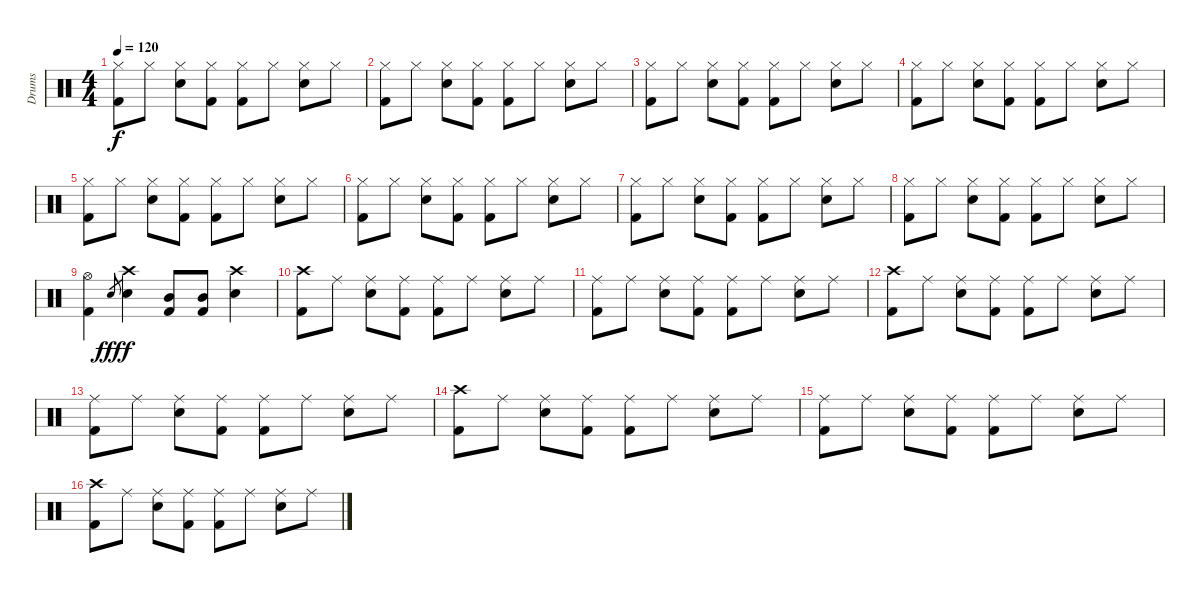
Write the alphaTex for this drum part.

\track ("Drums" "Drums") {instrument percussion}
\staff {score}
\articulation defaults
\ts (4 4)
\tempo 120
\clef neutral
\ks c
("Hi-Hat (closed)" "Kick (hit) 2").8{dy f} "Hi-Hat (closed)".8 ("Hi-Hat (closed)" "Snare (hit) 2").8 ("Hi-Hat (closed)" "Kick (hit) 2").8 ("Hi-Hat (closed)" "Kick (hit) 2").8 "Hi-Hat (closed)".8 ("Hi-Hat (closed)" "Snare (hit) 2").8 "Hi-Hat (closed)".8 |
("Hi-Hat (closed)" "Kick (hit) 2").8 "Hi-Hat (closed)".8 ("Hi-Hat (closed)" "Snare (hit) 2").8 ("Hi-Hat (closed)" "Kick (hit) 2").8 ("Hi-Hat (closed)" "Kick (hit) 2").8 "Hi-Hat (closed)".8 ("Hi-Hat (closed)" "Snare (hit) 2").8 "Hi-Hat (closed)".8 |
("Hi-Hat (closed)" "Kick (hit) 2").8 "Hi-Hat (closed)".8 ("Hi-Hat (closed)" "Snare (hit) 2").8 ("Hi-Hat (closed)" "Kick (hit) 2").8 ("Hi-Hat (closed)" "Kick (hit) 2").8 "Hi-Hat (closed)".8 ("Hi-Hat (closed)" "Snare (hit) 2").8 "Hi-Hat (closed)".8 |
("Hi-Hat (closed)" "Kick (hit) 2").8 "Hi-Hat (closed)".8 ("Hi-Hat (closed)" "Snare (hit) 2").8 ("Hi-Hat (closed)" "Kick (hit) 2").8 ("Hi-Hat (closed)" "Kick (hit) 2").8 "Hi-Hat (closed)".8 ("Hi-Hat (closed)" "Snare (hit) 2").8 "Hi-Hat (closed)".8 |
("Hi-Hat (closed)" "Kick (hit) 2").8 "Hi-Hat (closed)".8 ("Hi-Hat (closed)" "Snare (hit) 2").8 ("Hi-Hat (closed)" "Kick (hit) 2").8 ("Hi-Hat (closed)" "Kick (hit) 2").8 "Hi-Hat (closed)".8 ("Hi-Hat (closed)" "Snare (hit) 2").8 "Hi-Hat (closed)".8 |
("Hi-Hat (closed)" "Kick (hit) 2").8 "Hi-Hat (closed)".8 ("Hi-Hat (closed)" "Snare (hit) 2").8 ("Hi-Hat (closed)" "Kick (hit) 2").8 ("Hi-Hat (closed)" "Kick (hit) 2").8 "Hi-Hat (closed)".8 ("Hi-Hat (closed)" "Snare (hit) 2").8 "Hi-Hat (closed)".8 |
("Hi-Hat (closed)" "Kick (hit) 2").8 "Hi-Hat (closed)".8 ("Hi-Hat (closed)" "Snare (hit) 2").8 ("Hi-Hat (closed)" "Kick (hit) 2").8 ("Hi-Hat (closed)" "Kick (hit) 2").8 "Hi-Hat (closed)".8 ("Hi-Hat (closed)" "Snare (hit) 2").8 "Hi-Hat (closed)".8 |
("Hi-Hat (closed)" "Kick (hit) 2").8 "Hi-Hat (closed)".8 ("Hi-Hat (closed)" "Snare (hit) 2").8 ("Hi-Hat (closed)" "Kick (hit) 2").8 ("Hi-Hat (closed)" "Kick (hit) 2").8 "Hi-Hat (closed)".8 ("Hi-Hat (closed)" "Snare (hit) 2").8 "Hi-Hat (closed)".8 |
("Hi-Hat (open)" "Kick (hit) 2").4 "Snare (hit) 2".8{gr dy fff} ("Crash high (hit)" "Snare (hit) 2").4{dy f} ("Mid Tom (hit)" "Kick (hit) 2").8 ("Mid Tom (hit)" "Kick (hit) 2").8 ("Crash high (hit)" "Snare (hit) 2").4 |
("Crash high (hit)" "Kick (hit) 2").8 "Ride (middle)".8 ("Ride (middle)" "Snare (hit) 2").8 ("Ride (middle)" "Kick (hit) 2").8 ("Ride (middle)" "Kick (hit) 2").8 "Ride (middle)".8 ("Ride (middle)" "Snare (hit) 2").8 "Ride (middle)".8 |
("Ride (middle)" "Kick (hit) 2").8 "Ride (middle)".8 ("Ride (middle)" "Snare (hit) 2").8 ("Ride (middle)" "Kick (hit) 2").8 ("Ride (middle)" "Kick (hit) 2").8 "Ride (middle)".8 ("Ride (middle)" "Snare (hit) 2").8 "Ride (middle)".8 |
("Crash high (hit)" "Kick (hit) 2").8 "Ride (middle)".8 ("Ride (middle)" "Snare (hit) 2").8 ("Ride (middle)" "Kick (hit) 2").8 ("Ride (middle)" "Kick (hit) 2").8 "Ride (middle)".8 ("Ride (middle)" "Snare (hit) 2").8 "Ride (middle)".8 |
("Ride (middle)" "Kick (hit) 2").8 "Ride (middle)".8 ("Ride (middle)" "Snare (hit) 2").8 ("Ride (middle)" "Kick (hit) 2").8 ("Ride (middle)" "Kick (hit) 2").8 "Ride (middle)".8 ("Ride (middle)" "Snare (hit) 2").8 "Ride (middle)".8 |
("Crash high (hit)" "Kick (hit) 2").8 "Ride (middle)".8 ("Ride (middle)" "Snare (hit) 2").8 ("Ride (middle)" "Kick (hit) 2").8 ("Ride (middle)" "Kick (hit) 2").8 "Ride (middle)".8 ("Ride (middle)" "Snare (hit) 2").8 "Ride (middle)".8 |
("Ride (middle)" "Kick (hit) 2").8 "Ride (middle)".8 ("Ride (middle)" "Snare (hit) 2").8 ("Ride (middle)" "Kick (hit) 2").8 ("Ride (middle)" "Kick (hit) 2").8 "Ride (middle)".8 ("Ride (middle)" "Snare (hit) 2").8 "Ride (middle)".8 |
("Crash high (hit)" "Kick (hit) 2").8 "Ride (middle)".8 ("Ride (middle)" "Snare (hit) 2").8 ("Ride (middle)" "Kick (hit) 2").8 ("Ride (middle)" "Kick (hit) 2").8 "Ride (middle)".8 ("Ride (middle)" "Snare (hit) 2").8 "Ride (middle)".8
